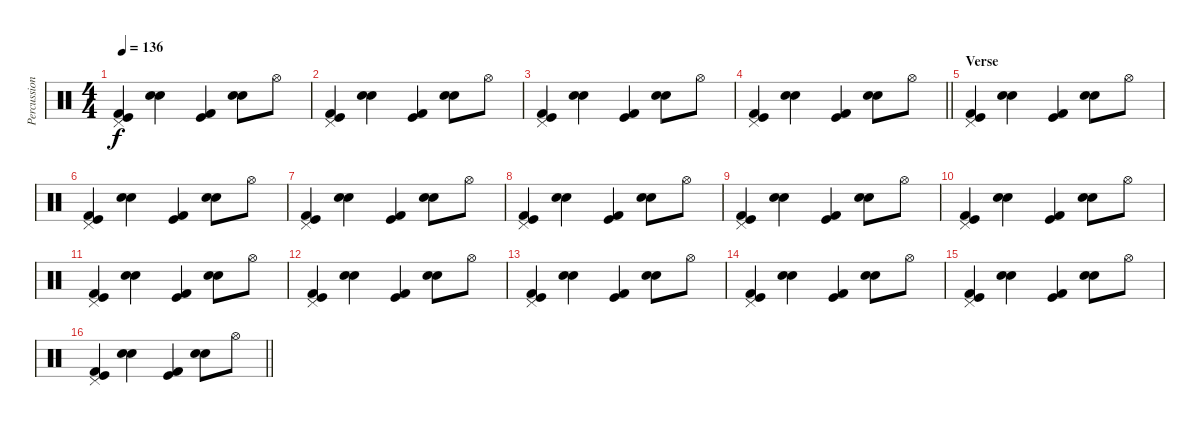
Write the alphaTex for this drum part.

\track ("Percussion" "Percussion") {instrument percussion}
\staff {score}
\articulation defaults
\ts (4 4)
\tempo 136
\clef neutral
\ks c
("Pedal Hi-Hat (hit)" "Kick (hit)" "Kick (hit) 2").4{dy f} ("Snare (hit) 2" "Electric Snare (hit)").4 ("Kick (hit)" "Kick (hit) 2").4 ("Snare (hit) 2" "Electric Snare (hit)").8 "Hi-Hat (open)".8 |
("Pedal Hi-Hat (hit)" "Kick (hit)" "Kick (hit) 2").4 ("Snare (hit) 2" "Electric Snare (hit)").4 ("Kick (hit)" "Kick (hit) 2").4 ("Snare (hit) 2" "Electric Snare (hit)").8 "Hi-Hat (open)".8 |
("Pedal Hi-Hat (hit)" "Kick (hit)" "Kick (hit) 2").4 ("Snare (hit) 2" "Electric Snare (hit)").4 ("Kick (hit)" "Kick (hit) 2").4 ("Snare (hit) 2" "Electric Snare (hit)").8 "Hi-Hat (open)".8 |
\barLineRight lightlight
("Pedal Hi-Hat (hit)" "Kick (hit)" "Kick (hit) 2").4 ("Snare (hit) 2" "Electric Snare (hit)").4 ("Kick (hit)" "Kick (hit) 2").4 ("Snare (hit) 2" "Electric Snare (hit)").8 "Hi-Hat (open)".8 |
\section ("" "Verse")
("Pedal Hi-Hat (hit)" "Kick (hit)" "Kick (hit) 2").4 ("Snare (hit) 2" "Electric Snare (hit)").4 ("Kick (hit)" "Kick (hit) 2").4 ("Snare (hit) 2" "Electric Snare (hit)").8 "Hi-Hat (open)".8 |
("Pedal Hi-Hat (hit)" "Kick (hit)" "Kick (hit) 2").4 ("Snare (hit) 2" "Electric Snare (hit)").4 ("Kick (hit)" "Kick (hit) 2").4 ("Snare (hit) 2" "Electric Snare (hit)").8 "Hi-Hat (open)".8 |
("Pedal Hi-Hat (hit)" "Kick (hit)" "Kick (hit) 2").4 ("Snare (hit) 2" "Electric Snare (hit)").4 ("Kick (hit)" "Kick (hit) 2").4 ("Snare (hit) 2" "Electric Snare (hit)").8 "Hi-Hat (open)".8 |
("Pedal Hi-Hat (hit)" "Kick (hit)" "Kick (hit) 2").4 ("Snare (hit) 2" "Electric Snare (hit)").4 ("Kick (hit)" "Kick (hit) 2").4 ("Snare (hit) 2" "Electric Snare (hit)").8 "Hi-Hat (open)".8 |
("Pedal Hi-Hat (hit)" "Kick (hit)" "Kick (hit) 2").4 ("Snare (hit) 2" "Electric Snare (hit)").4 ("Kick (hit)" "Kick (hit) 2").4 ("Snare (hit) 2" "Electric Snare (hit)").8 "Hi-Hat (open)".8 |
("Pedal Hi-Hat (hit)" "Kick (hit)" "Kick (hit) 2").4 ("Snare (hit) 2" "Electric Snare (hit)").4 ("Kick (hit)" "Kick (hit) 2").4 ("Snare (hit) 2" "Electric Snare (hit)").8 "Hi-Hat (open)".8 |
("Pedal Hi-Hat (hit)" "Kick (hit)" "Kick (hit) 2").4 ("Snare (hit) 2" "Electric Snare (hit)").4 ("Kick (hit)" "Kick (hit) 2").4 ("Snare (hit) 2" "Electric Snare (hit)").8 "Hi-Hat (open)".8 |
("Pedal Hi-Hat (hit)" "Kick (hit)" "Kick (hit) 2").4 ("Snare (hit) 2" "Electric Snare (hit)").4 ("Kick (hit)" "Kick (hit) 2").4 ("Snare (hit) 2" "Electric Snare (hit)").8 "Hi-Hat (open)".8 |
("Pedal Hi-Hat (hit)" "Kick (hit)" "Kick (hit) 2").4 ("Snare (hit) 2" "Electric Snare (hit)").4 ("Kick (hit)" "Kick (hit) 2").4 ("Snare (hit) 2" "Electric Snare (hit)").8 "Hi-Hat (open)".8 |
("Pedal Hi-Hat (hit)" "Kick (hit)" "Kick (hit) 2").4 ("Snare (hit) 2" "Electric Snare (hit)").4 ("Kick (hit)" "Kick (hit) 2").4 ("Snare (hit) 2" "Electric Snare (hit)").8 "Hi-Hat (open)".8 |
("Pedal Hi-Hat (hit)" "Kick (hit)" "Kick (hit) 2").4 ("Snare (hit) 2" "Electric Snare (hit)").4 ("Kick (hit)" "Kick (hit) 2").4 ("Snare (hit) 2" "Electric Snare (hit)").8 "Hi-Hat (open)".8 |
\barLineRight lightlight
("Pedal Hi-Hat (hit)" "Kick (hit)" "Kick (hit) 2").4 ("Snare (hit) 2" "Electric Snare (hit)").4 ("Kick (hit)" "Kick (hit) 2").4 ("Snare (hit) 2" "Electric Snare (hit)").8 "Hi-Hat (open)".8
